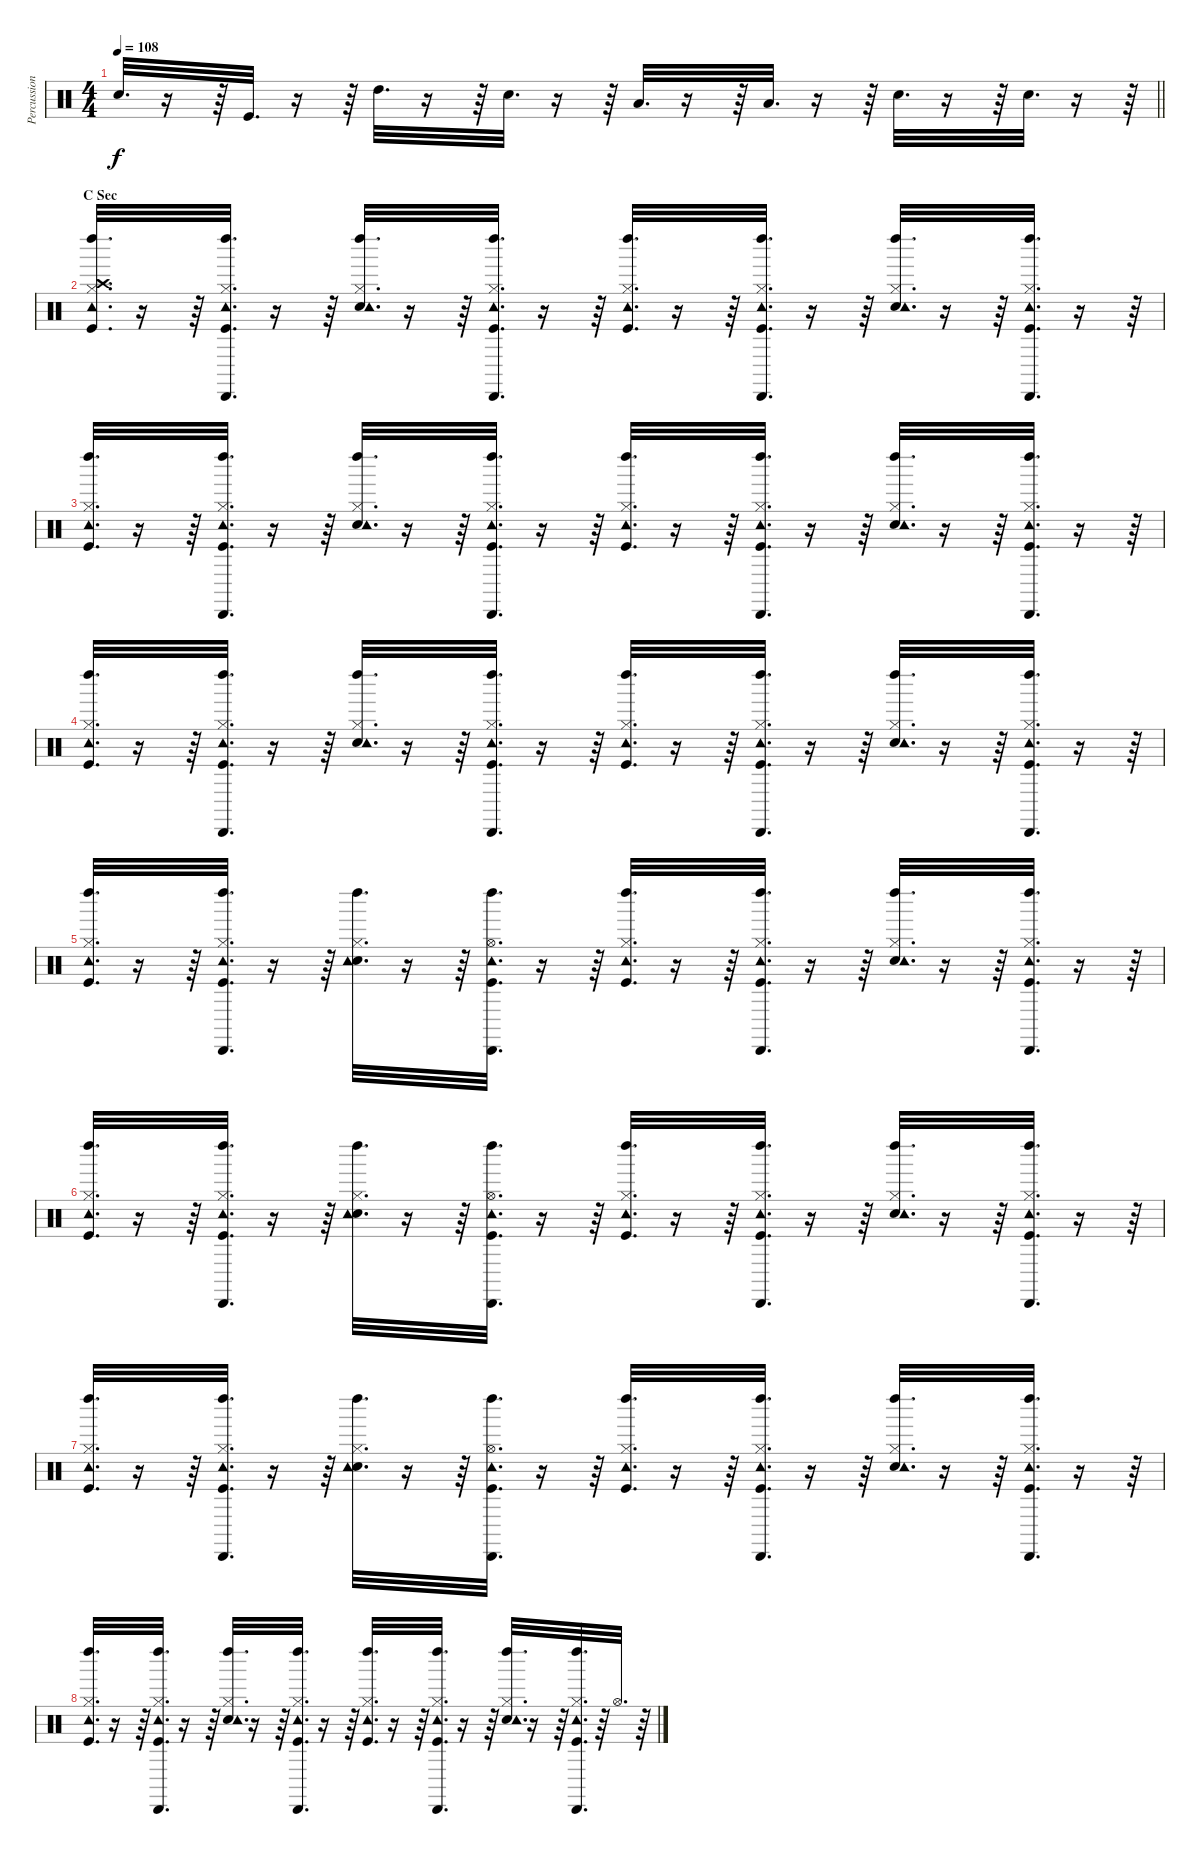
\track ("Percussions" "Percussion") {instrument percussion}
\staff {score}
\articulation defaults
\ts (4 4)
\tempo 108
\clef neutral
\barLineRight lightlight
\ks c "Snare (hit) 2".32{d dy f}
r.16 r.64 "Kick (hit)".32{d} r.16 r.64 "High Tom (hit)".32{d} r.16 r.64 "Snare (hit) 2".32{d} r.16 r.64 "Low Tom (hit)".32{d} r.16 r.64 "Low Tom (hit)".32{d} r.16 r.64 "Snare (hit) 2".32{d} r.16 r.64 "Snare (hit) 2".32{d} r.16 r.64 |
\section ("" "C Sec")
("Left Maraca (hit)" "Crash high (hit)" "Kick (hit)" "Hi-Hat (closed)" "Tambourine (hit)").32{d} r.16 r.64 ("Cabasa (hit)" "Tambourine (hit)" "Kick (hit)" "Hi-Hat (closed)" "Left Maraca (hit)").32{d} r.16 r.64 ("Left Maraca (hit)" "Snare (hit) 2" "Hi-Hat (closed)" "Tambourine (hit)").32{d} r.16 r.64 ("Cabasa (hit)" "Tambourine (hit)" "Kick (hit)" "Hi-Hat (closed)" "Left Maraca (hit)").32{d} r.16 r.64 ("Left Maraca (hit)" "Kick (hit)" "Hi-Hat (closed)" "Tambourine (hit)").32{d} r.16 r.64 ("Cabasa (hit)" "Tambourine (hit)" "Kick (hit)" "Hi-Hat (closed)" "Left Maraca (hit)").32{d} r.16 r.64 ("Left Maraca (hit)" "Snare (hit) 2" "Hi-Hat (closed)" "Tambourine (hit)").32{d} r.16 r.64 ("Cabasa (hit)" "Tambourine (hit)" "Kick (hit)" "Hi-Hat (closed)" "Left Maraca (hit)").32{d} r.16 r.64 |
("Left Maraca (hit)" "Kick (hit)" "Hi-Hat (closed)" "Tambourine (hit)").32{d} r.16 r.64 ("Cabasa (hit)" "Tambourine (hit)" "Kick (hit)" "Hi-Hat (closed)" "Left Maraca (hit)").32{d} r.16 r.64 ("Left Maraca (hit)" "Snare (hit) 2" "Hi-Hat (closed)" "Tambourine (hit)").32{d} r.16 r.64 ("Cabasa (hit)" "Tambourine (hit)" "Kick (hit)" "Hi-Hat (closed)" "Left Maraca (hit)").32{d} r.16 r.64 ("Left Maraca (hit)" "Kick (hit)" "Hi-Hat (closed)" "Tambourine (hit)").32{d} r.16 r.64 ("Cabasa (hit)" "Tambourine (hit)" "Kick (hit)" "Hi-Hat (closed)" "Left Maraca (hit)").32{d} r.16 r.64 ("Left Maraca (hit)" "Snare (hit) 2" "Hi-Hat (closed)" "Tambourine (hit)").32{d} r.16 r.64 ("Cabasa (hit)" "Tambourine (hit)" "Kick (hit)" "Hi-Hat (closed)" "Left Maraca (hit)").32{d} r.16 r.64 |
("Left Maraca (hit)" "Kick (hit)" "Hi-Hat (closed)" "Tambourine (hit)").32{d} r.16 r.64 ("Cabasa (hit)" "Tambourine (hit)" "Kick (hit)" "Hi-Hat (closed)" "Left Maraca (hit)").32{d} r.16 r.64 ("Left Maraca (hit)" "Snare (hit) 2" "Hi-Hat (closed)" "Tambourine (hit)").32{d} r.16 r.64 ("Cabasa (hit)" "Tambourine (hit)" "Kick (hit)" "Hi-Hat (closed)" "Left Maraca (hit)").32{d} r.16 r.64 ("Left Maraca (hit)" "Kick (hit)" "Hi-Hat (closed)" "Tambourine (hit)").32{d} r.16 r.64 ("Cabasa (hit)" "Tambourine (hit)" "Kick (hit)" "Hi-Hat (closed)" "Left Maraca (hit)").32{d} r.16 r.64 ("Left Maraca (hit)" "Snare (hit) 2" "Hi-Hat (closed)" "Tambourine (hit)").32{d} r.16 r.64 ("Cabasa (hit)" "Tambourine (hit)" "Kick (hit)" "Hi-Hat (closed)" "Left Maraca (hit)").32{d} r.16 r.64 |
("Left Maraca (hit)" "Kick (hit)" "Hi-Hat (closed)" "Tambourine (hit)").32{d} r.16 r.64 ("Cabasa (hit)" "Tambourine (hit)" "Kick (hit)" "Hi-Hat (closed)" "Left Maraca (hit)").32{d} r.16 r.64 ("Left Maraca (hit)" "Snare (hit) 2" "Hi-Hat (closed)" "Tambourine (hit)").32{d} r.16 r.64 ("Cabasa (hit)" "Tambourine (hit)" "Kick (hit)" "Hi-Hat (open)" "Left Maraca (hit)").32{d} r.16 r.64 ("Left Maraca (hit)" "Kick (hit)" "Hi-Hat (closed)" "Tambourine (hit)").32{d} r.16 r.64 ("Cabasa (hit)" "Tambourine (hit)" "Kick (hit)" "Hi-Hat (closed)" "Left Maraca (hit)").32{d} r.16 r.64 ("Left Maraca (hit)" "Snare (hit) 2" "Hi-Hat (closed)" "Tambourine (hit)").32{d} r.16 r.64 ("Cabasa (hit)" "Tambourine (hit)" "Kick (hit)" "Hi-Hat (closed)" "Left Maraca (hit)").32{d} r.16 r.64 |
("Left Maraca (hit)" "Kick (hit)" "Hi-Hat (closed)" "Tambourine (hit)").32{d} r.16 r.64 ("Cabasa (hit)" "Tambourine (hit)" "Kick (hit)" "Hi-Hat (closed)" "Left Maraca (hit)").32{d} r.16 r.64 ("Left Maraca (hit)" "Snare (hit) 2" "Hi-Hat (closed)" "Tambourine (hit)").32{d} r.16 r.64 ("Cabasa (hit)" "Tambourine (hit)" "Kick (hit)" "Hi-Hat (open)" "Left Maraca (hit)").32{d} r.16 r.64 ("Left Maraca (hit)" "Kick (hit)" "Hi-Hat (closed)" "Tambourine (hit)").32{d} r.16 r.64 ("Cabasa (hit)" "Tambourine (hit)" "Kick (hit)" "Hi-Hat (closed)" "Left Maraca (hit)").32{d} r.16 r.64 ("Left Maraca (hit)" "Snare (hit) 2" "Hi-Hat (closed)" "Tambourine (hit)").32{d} r.16 r.64 ("Cabasa (hit)" "Tambourine (hit)" "Kick (hit)" "Hi-Hat (closed)" "Left Maraca (hit)").32{d} r.16 r.64 |
("Left Maraca (hit)" "Kick (hit)" "Hi-Hat (closed)" "Tambourine (hit)").32{d} r.16 r.64 ("Cabasa (hit)" "Tambourine (hit)" "Kick (hit)" "Hi-Hat (closed)" "Left Maraca (hit)").32{d} r.16 r.64 ("Left Maraca (hit)" "Snare (hit) 2" "Hi-Hat (closed)" "Tambourine (hit)").32{d} r.16 r.64 ("Cabasa (hit)" "Tambourine (hit)" "Kick (hit)" "Hi-Hat (open)" "Left Maraca (hit)").32{d} r.16 r.64 ("Left Maraca (hit)" "Kick (hit)" "Hi-Hat (closed)" "Tambourine (hit)").32{d} r.16 r.64 ("Cabasa (hit)" "Tambourine (hit)" "Kick (hit)" "Hi-Hat (closed)" "Left Maraca (hit)").32{d} r.16 r.64 ("Left Maraca (hit)" "Snare (hit) 2" "Hi-Hat (closed)" "Tambourine (hit)").32{d} r.16 r.64 ("Cabasa (hit)" "Tambourine (hit)" "Kick (hit)" "Hi-Hat (closed)" "Left Maraca (hit)").32{d} r.16 r.64 |
("Left Maraca (hit)" "Kick (hit)" "Hi-Hat (closed)" "Tambourine (hit)").32{d} r.16 r.64 ("Cabasa (hit)" "Tambourine (hit)" "Kick (hit)" "Hi-Hat (closed)" "Left Maraca (hit)").32{d} r.16 r.64 ("Left Maraca (hit)" "Snare (hit) 2" "Hi-Hat (closed)" "Tambourine (hit)").32{d} r.16 r.64 ("Cabasa (hit)" "Tambourine (hit)" "Kick (hit)" "Hi-Hat (closed)" "Left Maraca (hit)").32{d} r.16 r.64 ("Left Maraca (hit)" "Kick (hit)" "Hi-Hat (closed)" "Tambourine (hit)").32{d} r.16 r.64 ("Cabasa (hit)" "Tambourine (hit)" "Kick (hit)" "Hi-Hat (closed)" "Left Maraca (hit)").32{d} r.16 r.64 ("Left Maraca (hit)" "Snare (hit) 2" "Hi-Hat (closed)" "Tambourine (hit)").32{d} r.16 r.64 ("Cabasa (hit)" "Tambourine (hit)" "Kick (hit)" "Hi-Hat (closed)" "Left Maraca (hit)").32{d} r.64 "Hi-Hat (open)".32{d} r.64
